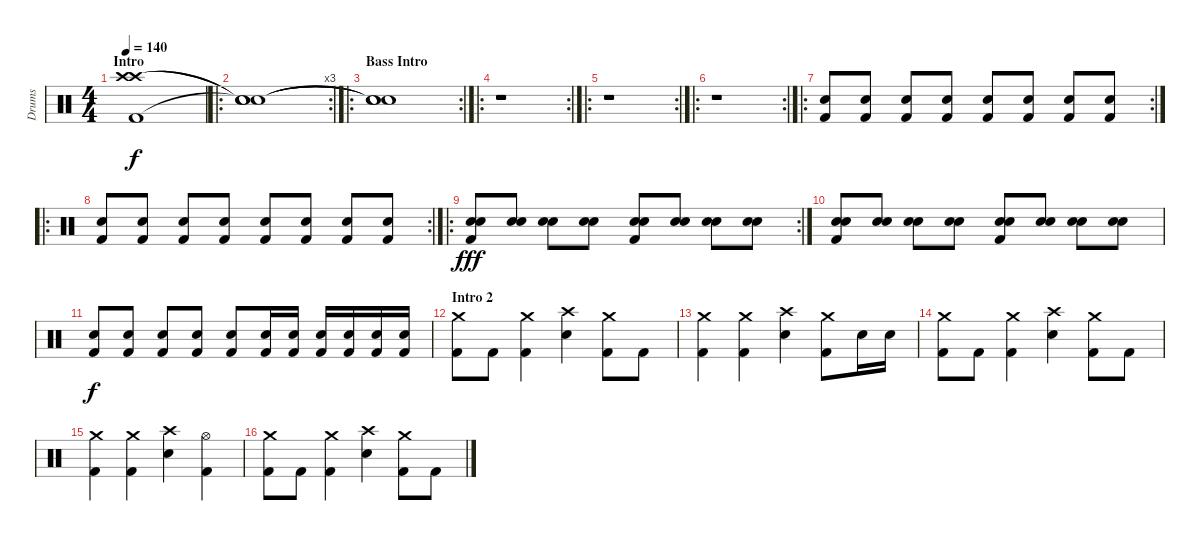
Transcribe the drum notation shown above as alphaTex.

\track ("Drums" "Drums") {instrument percussion}
\staff {score}
\articulation defaults
\ts (4 4)
\section ("" "Intro")
\tempo 140
\clef neutral
\ks c
("Crash high (hit)" "Crash high (hit)" "Kick (hit) 2").1{dy f} |
\ro
\rc 3
("Snare (hit)"{t} "Snare (hit)"{t} "Snare (hit)"{t}).1 |
\ro
\rc 2
\section ("" "Bass Intro")
("Snare (hit)"{t} "Snare (hit)"{t} "Snare (hit)"{t}).1 |
\ro
\rc 2
r.1 |
\ro
\rc 2
r.1 |
\ro
\rc 2
r.1 |
\ro
\rc 2
("Electric Snare (hit)" "Kick (hit) 2").8 ("Electric Snare (hit)" "Kick (hit) 2").8 ("Electric Snare (hit)" "Kick (hit) 2").8 ("Electric Snare (hit)" "Kick (hit) 2").8 ("Electric Snare (hit)" "Kick (hit) 2").8 ("Electric Snare (hit)" "Kick (hit) 2").8 ("Electric Snare (hit)" "Kick (hit) 2").8 ("Electric Snare (hit)" "Kick (hit) 2").8 |
\ro
\rc 2
("Electric Snare (hit)" "Kick (hit) 2").8 ("Electric Snare (hit)" "Kick (hit) 2").8 ("Electric Snare (hit)" "Kick (hit) 2").8 ("Electric Snare (hit)" "Kick (hit) 2").8 ("Electric Snare (hit)" "Kick (hit) 2").8 ("Electric Snare (hit)" "Kick (hit) 2").8 ("Electric Snare (hit)" "Kick (hit) 2").8 ("Electric Snare (hit)" "Kick (hit) 2").8 |
\ro
\rc 2
("Electric Snare (hit)" "Electric Snare (hit)" "Kick (hit) 2").8{dy fff} ("Electric Snare (hit)" "Electric Snare (hit)").8 ("Electric Snare (hit)" "Electric Snare (hit)").8 ("Electric Snare (hit)" "Electric Snare (hit)").8 ("Electric Snare (hit)" "Electric Snare (hit)" "Kick (hit) 2").8 ("Electric Snare (hit)" "Electric Snare (hit)").8 ("Electric Snare (hit)" "Electric Snare (hit)").8 ("Electric Snare (hit)" "Electric Snare (hit)").8 |
("Electric Snare (hit)" "Electric Snare (hit)" "Kick (hit) 2").8 ("Electric Snare (hit)" "Electric Snare (hit)").8 ("Electric Snare (hit)" "Electric Snare (hit)").8 ("Electric Snare (hit)" "Electric Snare (hit)").8 ("Electric Snare (hit)" "Electric Snare (hit)" "Kick (hit) 2").8 ("Electric Snare (hit)" "Electric Snare (hit)").8 ("Electric Snare (hit)" "Electric Snare (hit)").8 ("Electric Snare (hit)" "Electric Snare (hit)").8 |
("Electric Snare (hit)" "Kick (hit) 2").8{dy f} ("Electric Snare (hit)" "Kick (hit) 2").8 ("Electric Snare (hit)" "Kick (hit) 2").8 ("Electric Snare (hit)" "Kick (hit) 2").8 ("Electric Snare (hit)" "Kick (hit) 2").8 ("Electric Snare (hit)" "Kick (hit) 2").16 ("Electric Snare (hit)" "Kick (hit) 2").16 ("Electric Snare (hit)" "Kick (hit) 2").16 ("Electric Snare (hit)" "Kick (hit) 2").16 ("Electric Snare (hit)" "Kick (hit) 2").16 ("Electric Snare (hit)" "Kick (hit) 2").16 |
\section ("" "Intro 2")
("Crash medium (hit)" "Kick (hit) 2").8 "Kick (hit) 2".8 ("Crash medium (hit)" "Kick (hit) 2").4 ("Crash high (hit)" "Electric Snare (hit)").4 ("Crash medium (hit)" "Kick (hit) 2").8 "Kick (hit) 2".8 |
("Crash medium (hit)" "Kick (hit) 2").4 ("Crash medium (hit)" "Kick (hit) 2").4 ("Crash high (hit)" "Electric Snare (hit)").4 ("Crash medium (hit)" "Kick (hit) 2").8 "Electric Snare (hit)".16 "Electric Snare (hit)".16 |
("Crash medium (hit)" "Kick (hit) 2").8 "Kick (hit) 2".8 ("Crash medium (hit)" "Kick (hit) 2").4 ("Crash high (hit)" "Electric Snare (hit)").4 ("Crash medium (hit)" "Kick (hit) 2").8 "Kick (hit) 2".8 |
("Crash medium (hit)" "Kick (hit) 2").4 ("Crash medium (hit)" "Kick (hit) 2").4 ("Crash high (hit)" "Electric Snare (hit)").4 ("Hi-Hat (open)" "Kick (hit) 2").4 |
("Crash medium (hit)" "Kick (hit) 2").8 "Kick (hit) 2".8 ("Crash medium (hit)" "Kick (hit) 2").4 ("Crash high (hit)" "Electric Snare (hit)").4 ("Crash medium (hit)" "Kick (hit) 2").8 "Kick (hit) 2".8
